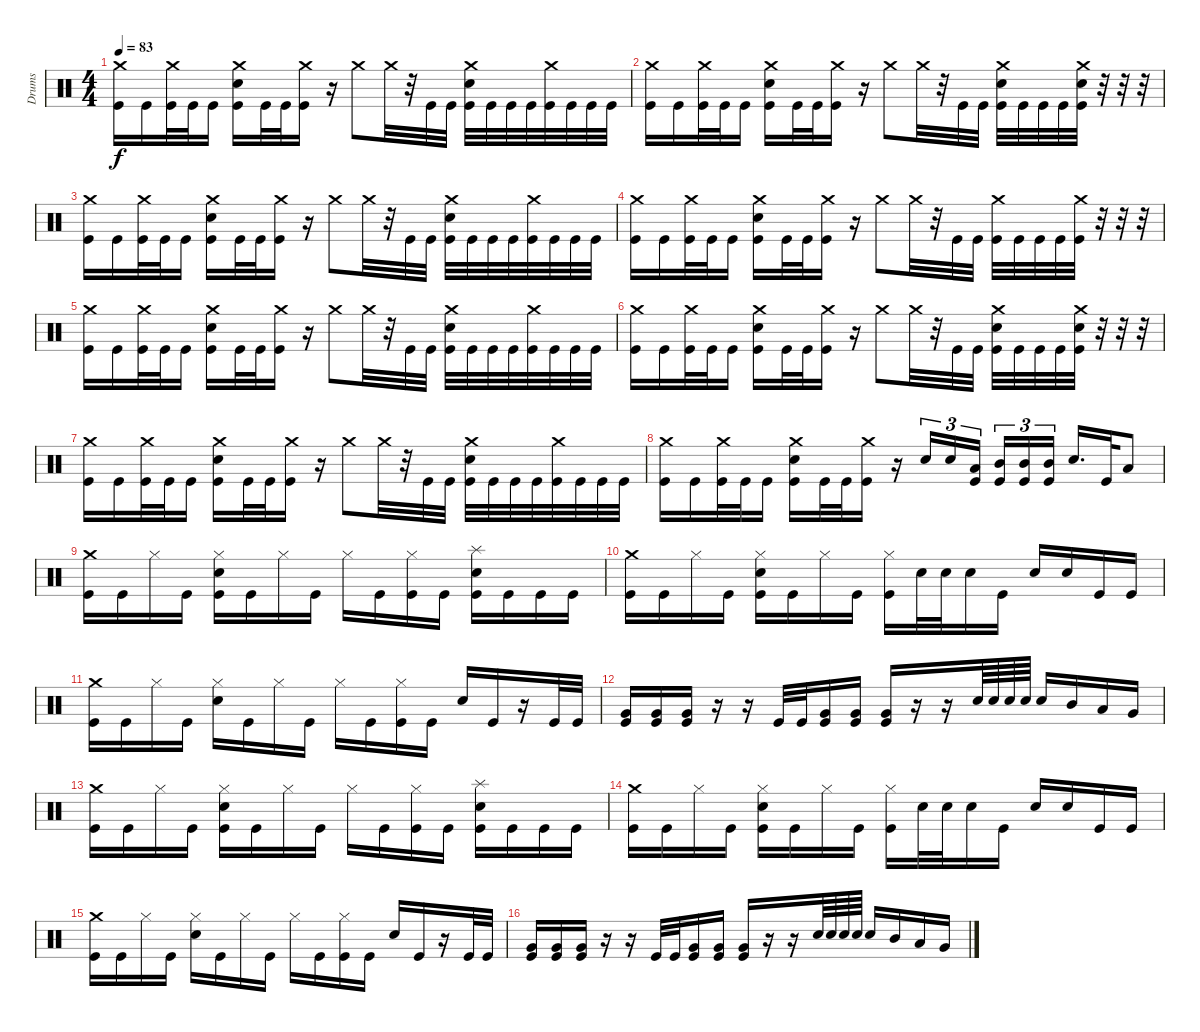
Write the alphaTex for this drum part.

\track ("Drums" "Drums") {instrument percussion}
\staff {score}
\articulation defaults
\ts (4 4)
\tempo 83
\clef neutral
\ks c
("Crash medium (hit)" "Kick (hit)").16{dy f} "Kick (hit)".16 ("Crash medium (hit)" "Kick (hit)").32 "Kick (hit)".32 "Kick (hit)".16 ("Crash medium (hit)" "Snare (hit) 2" "Kick (hit)").16 "Kick (hit)".32 "Kick (hit)".32 ("Crash medium (hit)" "Kick (hit)").16 r.16 "Crash medium (hit)".8 "Crash medium (hit)".32 r.32 "Kick (hit)".32 "Kick (hit)".32 ("Crash medium (hit)" "Snare (hit) 2" "Kick (hit)").32 "Kick (hit)".32 "Kick (hit)".32 "Kick (hit)".32 ("Crash medium (hit)" "Kick (hit)").32 "Kick (hit)".32 "Kick (hit)".32 "Kick (hit)".32 |
("Crash medium (hit)" "Kick (hit)").16 "Kick (hit)".16 ("Crash medium (hit)" "Kick (hit)").32 "Kick (hit)".32 "Kick (hit)".16 ("Crash medium (hit)" "Snare (hit) 2" "Kick (hit)").16 "Kick (hit)".32 "Kick (hit)".32 ("Crash medium (hit)" "Kick (hit)").16 r.16 "Crash medium (hit)".8 "Crash medium (hit)".32 r.32 "Kick (hit)".32 "Kick (hit)".32 ("Crash medium (hit)" "Snare (hit) 2" "Kick (hit)").32 "Kick (hit)".32 "Kick (hit)".32 "Kick (hit)".32 ("Crash medium (hit)" "Snare (hit) 2" "Kick (hit)").32 r.32 r.32 r.32 |
("Crash medium (hit)" "Kick (hit)").16 "Kick (hit)".16 ("Crash medium (hit)" "Kick (hit)").32 "Kick (hit)".32 "Kick (hit)".16 ("Crash medium (hit)" "Snare (hit) 2" "Kick (hit)").16 "Kick (hit)".32 "Kick (hit)".32 ("Crash medium (hit)" "Kick (hit)").16 r.16 "Crash medium (hit)".8 "Crash medium (hit)".32 r.32 "Kick (hit)".32 "Kick (hit)".32 ("Crash medium (hit)" "Snare (hit) 2" "Kick (hit)").32 "Kick (hit)".32 "Kick (hit)".32 "Kick (hit)".32 ("Crash medium (hit)" "Kick (hit)").32 "Kick (hit)".32 "Kick (hit)".32 "Kick (hit)".32 |
("Crash medium (hit)" "Kick (hit)").16 "Kick (hit)".16 ("Crash medium (hit)" "Kick (hit)").32 "Kick (hit)".32 "Kick (hit)".16 ("Crash medium (hit)" "Snare (hit) 2" "Kick (hit)").16 "Kick (hit)".32 "Kick (hit)".32 ("Crash medium (hit)" "Kick (hit)").16 r.16 "Crash medium (hit)".8 "Crash medium (hit)".32 r.32 "Kick (hit)".32 "Kick (hit)".32 ("Crash medium (hit)" "Kick (hit)").32 "Kick (hit)".32 "Kick (hit)".32 "Kick (hit)".32 ("Crash medium (hit)" "Kick (hit)").32 r.32 r.32 r.32 |
("Crash medium (hit)" "Kick (hit)").16 "Kick (hit)".16 ("Crash medium (hit)" "Kick (hit)").32 "Kick (hit)".32 "Kick (hit)".16 ("Crash medium (hit)" "Snare (hit) 2" "Kick (hit)").16 "Kick (hit)".32 "Kick (hit)".32 ("Crash medium (hit)" "Kick (hit)").16 r.16 "Crash medium (hit)".8 "Crash medium (hit)".32 r.32 "Kick (hit)".32 "Kick (hit)".32 ("Crash medium (hit)" "Snare (hit) 2" "Kick (hit)").32 "Kick (hit)".32 "Kick (hit)".32 "Kick (hit)".32 ("Crash medium (hit)" "Kick (hit)").32 "Kick (hit)".32 "Kick (hit)".32 "Kick (hit)".32 |
("Crash medium (hit)" "Kick (hit)").16 "Kick (hit)".16 ("Crash medium (hit)" "Kick (hit)").32 "Kick (hit)".32 "Kick (hit)".16 ("Crash medium (hit)" "Snare (hit) 2" "Kick (hit)").16 "Kick (hit)".32 "Kick (hit)".32 ("Crash medium (hit)" "Kick (hit)").16 r.16 "Crash medium (hit)".8 "Crash medium (hit)".32 r.32 "Kick (hit)".32 "Kick (hit)".32 ("Crash medium (hit)" "Snare (hit) 2" "Kick (hit)").32 "Kick (hit)".32 "Kick (hit)".32 "Kick (hit)".32 ("Crash medium (hit)" "Snare (hit) 2" "Kick (hit)").32 r.32 r.32 r.32 |
("Crash medium (hit)" "Kick (hit)").16 "Kick (hit)".16 ("Crash medium (hit)" "Kick (hit)").32 "Kick (hit)".32 "Kick (hit)".16 ("Crash medium (hit)" "Snare (hit) 2" "Kick (hit)").16 "Kick (hit)".32 "Kick (hit)".32 ("Crash medium (hit)" "Kick (hit)").16 r.16 "Crash medium (hit)".8 "Crash medium (hit)".32 r.32 "Kick (hit)".32 "Kick (hit)".32 ("Crash medium (hit)" "Snare (hit) 2" "Kick (hit)").32 "Kick (hit)".32 "Kick (hit)".32 "Kick (hit)".32 ("Crash medium (hit)" "Kick (hit)").32 "Kick (hit)".32 "Kick (hit)".32 "Kick (hit)".32 |
("Crash medium (hit)" "Kick (hit)").16 "Kick (hit)".16 ("Crash medium (hit)" "Kick (hit)").32 "Kick (hit)".32 "Kick (hit)".16 ("Crash medium (hit)" "Snare (hit) 2" "Kick (hit)").16 "Kick (hit)".32 "Kick (hit)".32 ("Crash medium (hit)" "Kick (hit)").16 r.16 "Snare (hit) 2".16{tu (3 2)} "Snare (hit) 2".16{tu (3 2)} ("Low Tom (hit)" "Kick (hit)").16{tu (3 2) beam splitsecondary} ("Mid Tom (hit)" "Kick (hit)").16{tu (3 2)} ("Mid Tom (hit)" "Kick (hit)").16{tu (3 2)} ("Mid Tom (hit)" "Kick (hit)").16{tu (3 2)} "Snare (hit) 2".16{d} "Kick (hit)".32 "Low Floor Tom (hit)".8 |
("Crash medium (hit)" "Kick (hit)").16 "Kick (hit)".16 "Hi-Hat (closed)".16 "Kick (hit)".16 ("Hi-Hat (closed)" "Snare (hit) 2" "Kick (hit)").16 "Kick (hit)".16 "Hi-Hat (closed)".16 "Kick (hit)".16 "Hi-Hat (closed)".16 "Kick (hit)".16 ("Hi-Hat (closed)" "Kick (hit)").16 "Kick (hit)".16 ("Splash (hit)" "Snare (hit) 2" "Kick (hit)").16 "Kick (hit)".16 "Kick (hit)".16 "Kick (hit)".16 |
("Crash medium (hit)" "Kick (hit)").16 "Kick (hit)".16 "Hi-Hat (closed)".16 "Kick (hit)".16 ("Hi-Hat (closed)" "Snare (hit) 2" "Kick (hit)").16 "Kick (hit)".16 "Hi-Hat (closed)".16 "Kick (hit)".16 ("Hi-Hat (closed)" "Kick (hit)").16 "Snare (hit) 2".32 "Snare (hit) 2".32 "Snare (hit) 2".16 "Kick (hit)".16 "Snare (hit) 2".16 "Snare (hit) 2".16 "Kick (hit)".16 "Kick (hit)".16 |
("Crash medium (hit)" "Kick (hit)").16 "Kick (hit)".16 "Hi-Hat (closed)".16 "Kick (hit)".16 ("Hi-Hat (closed)" "Snare (hit) 2").16 "Kick (hit)".16 "Hi-Hat (closed)".16 "Kick (hit)".16 "Hi-Hat (closed)".16 "Kick (hit)".16 ("Hi-Hat (closed)" "Kick (hit)").16 "Kick (hit)".16 "Snare (hit) 2".16 "Kick (hit)".16 r.16 "Kick (hit)".32 "Kick (hit)".32 |
("Very Low Tom (hit)" "Kick (hit)").16 ("Very Low Tom (hit)" "Kick (hit)").16 ("Very Low Tom (hit)" "Kick (hit)").16 r.16 r.16 "Kick (hit)".32 "Kick (hit)".32 ("Very Low Tom (hit)" "Kick (hit)").16 ("Very Low Tom (hit)" "Kick (hit)").16 ("Very Low Tom (hit)" "Kick (hit)").16 r.16 r.16 "Snare (hit) 2".64 "Snare (hit) 2".64 "Snare (hit) 2".64 "Snare (hit) 2".64 "Snare (hit) 2".16 "Mid Tom (hit)".16 "Low Tom (hit)".16 "Very Low Tom (hit)".16 |
("Crash medium (hit)" "Kick (hit)").16 "Kick (hit)".16 "Hi-Hat (closed)".16 "Kick (hit)".16 ("Hi-Hat (closed)" "Snare (hit) 2" "Kick (hit)").16 "Kick (hit)".16 "Hi-Hat (closed)".16 "Kick (hit)".16 "Hi-Hat (closed)".16 "Kick (hit)".16 ("Hi-Hat (closed)" "Kick (hit)").16 "Kick (hit)".16 ("Splash (hit)" "Snare (hit) 2" "Kick (hit)").16 "Kick (hit)".16 "Kick (hit)".16 "Kick (hit)".16 |
("Crash medium (hit)" "Kick (hit)").16 "Kick (hit)".16 "Hi-Hat (closed)".16 "Kick (hit)".16 ("Hi-Hat (closed)" "Snare (hit) 2" "Kick (hit)").16 "Kick (hit)".16 "Hi-Hat (closed)".16 "Kick (hit)".16 ("Hi-Hat (closed)" "Kick (hit)").16 "Snare (hit) 2".32 "Snare (hit) 2".32 "Snare (hit) 2".16 "Kick (hit)".16 "Snare (hit) 2".16 "Snare (hit) 2".16 "Kick (hit)".16 "Kick (hit)".16 |
("Crash medium (hit)" "Kick (hit)").16 "Kick (hit)".16 "Hi-Hat (closed)".16 "Kick (hit)".16 ("Hi-Hat (closed)" "Snare (hit) 2").16 "Kick (hit)".16 "Hi-Hat (closed)".16 "Kick (hit)".16 "Hi-Hat (closed)".16 "Kick (hit)".16 ("Hi-Hat (closed)" "Kick (hit)").16 "Kick (hit)".16 "Snare (hit) 2".16 "Kick (hit)".16 r.16 "Kick (hit)".32 "Kick (hit)".32 |
("Very Low Tom (hit)" "Kick (hit)").16 ("Very Low Tom (hit)" "Kick (hit)").16 ("Very Low Tom (hit)" "Kick (hit)").16 r.16 r.16 "Kick (hit)".32 "Kick (hit)".32 ("Very Low Tom (hit)" "Kick (hit)").16 ("Very Low Tom (hit)" "Kick (hit)").16 ("Very Low Tom (hit)" "Kick (hit)").16 r.16 r.16 "Snare (hit) 2".64 "Snare (hit) 2".64 "Snare (hit) 2".64 "Snare (hit) 2".64 "Snare (hit) 2".16 "Mid Tom (hit)".16 "Low Tom (hit)".16 "Very Low Tom (hit)".16
